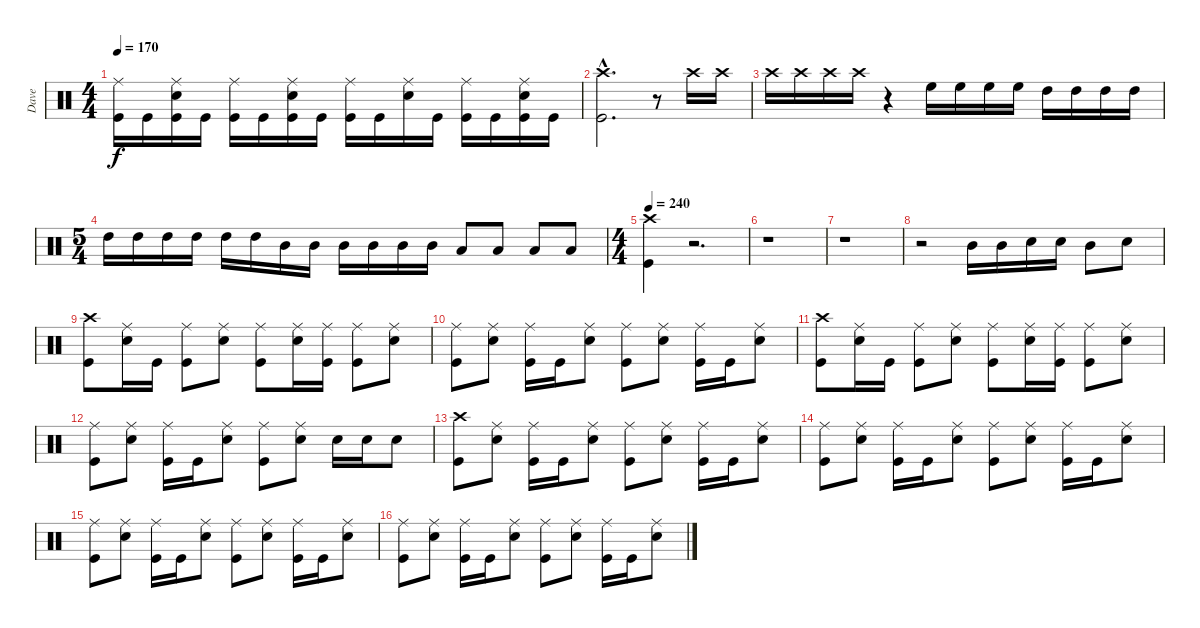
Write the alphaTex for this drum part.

\track ("Dave" "Dave") {instrument percussion}
\staff {score}
\articulation defaults
\ts (4 4)
\tempo 170
\clef neutral
\ks c
("Ride (middle)" "Kick (hit)").16{dy f} "Kick (hit)".16 ("Ride (middle)" "Snare (hit) 2" "Kick (hit)").16 "Kick (hit)".16 ("Ride (middle)" "Kick (hit)").16 "Kick (hit)".16 ("Ride (middle)" "Snare (hit) 2" "Kick (hit)").16 "Kick (hit)".16 ("Ride (middle)" "Kick (hit)").16 "Kick (hit)".16 ("Ride (middle)" "Snare (hit) 2").16 "Kick (hit)".16 ("Ride (middle)" "Kick (hit)").16 "Kick (hit)".16 ("Ride (middle)" "Snare (hit) 2" "Kick (hit)").16 "Kick (hit)".16 |
("Crash high (hit)"{hac} "Kick (hit)"{hac}).2{d} r.8 "Crash high (hit)".16 "Crash high (hit)".16 |
"Crash high (hit)".16 "Crash high (hit)".16 "Crash high (hit)".16 "Crash high (hit)".16 r.4 "High Floor Tom (hit)".16 "High Floor Tom (hit)".16 "High Floor Tom (hit)".16 "High Floor Tom (hit)".16 "High Tom (hit)".16 "High Tom (hit)".16 "High Tom (hit)".16 "High Tom (hit)".16 |
\ts (5 4)
"High Tom (hit)".16 "High Tom (hit)".16 "High Tom (hit)".16 "High Tom (hit)".16 "High Tom (hit)".16 "High Tom (hit)".16 "Mid Tom (hit)".16 "Mid Tom (hit)".16 "Mid Tom (hit)".16 "Mid Tom (hit)".16 "Mid Tom (hit)".16 "Mid Tom (hit)".16 "Low Tom (hit)".8 "Low Tom (hit)".8 "Low Tom (hit)".8 "Low Tom (hit)".8 |
\ts (4 4)
\tempo 240
("Crash high (hit)" "Kick (hit)").4 r.2{d} |
r.1 |
r.1 |
r.2 "Mid Tom (hit)".16 "Mid Tom (hit)".16 "Snare (hit) 2".16 "Snare (hit) 2".16 "Mid Tom (hit)".8 "Snare (hit) 2".8 |
("Crash high (hit)" "Kick (hit)").8 ("Ride (middle)" "Snare (hit) 2").16 "Kick (hit)".16 ("Ride (middle)" "Kick (hit)").8 ("Ride (middle)" "Snare (hit) 2").8 ("Ride (middle)" "Kick (hit)").8 ("Ride (middle)" "Snare (hit) 2").16 ("Ride (middle)" "Kick (hit)").16 ("Ride (middle)" "Kick (hit)").8 ("Ride (middle)" "Snare (hit) 2").8 |
("Ride (middle)" "Kick (hit)").8 ("Ride (middle)" "Snare (hit) 2").8 ("Ride (middle)" "Kick (hit)").16 "Kick (hit)".16 ("Ride (middle)" "Snare (hit) 2").8 ("Ride (middle)" "Kick (hit)").8 ("Ride (middle)" "Snare (hit) 2").8 ("Ride (middle)" "Kick (hit)").16 "Kick (hit)".16 ("Ride (middle)" "Snare (hit) 2").8 |
("Crash high (hit)" "Kick (hit)").8 ("Ride (middle)" "Snare (hit) 2").16 "Kick (hit)".16 ("Ride (middle)" "Kick (hit)").8 ("Ride (middle)" "Snare (hit) 2").8 ("Ride (middle)" "Kick (hit)").8 ("Ride (middle)" "Snare (hit) 2").16 ("Ride (middle)" "Kick (hit)").16 ("Ride (middle)" "Kick (hit)").8 ("Ride (middle)" "Snare (hit) 2").8 |
("Ride (middle)" "Kick (hit)").8 ("Ride (middle)" "Snare (hit) 2").8 ("Ride (middle)" "Kick (hit)").16 "Kick (hit)".16 ("Ride (middle)" "Snare (hit) 2").8 ("Ride (middle)" "Kick (hit)").8 ("Ride (middle)" "Snare (hit) 2").8 "Snare (hit) 2".16 "Snare (hit) 2".16 "Snare (hit) 2".8 |
("Crash high (hit)" "Kick (hit)").8 ("Ride (middle)" "Snare (hit) 2").8 ("Ride (middle)" "Kick (hit)").16 "Kick (hit)".16 ("Ride (middle)" "Snare (hit) 2").8 ("Ride (middle)" "Kick (hit)").8 ("Ride (middle)" "Snare (hit) 2").8 ("Ride (middle)" "Kick (hit)").16 "Kick (hit)".16 ("Ride (middle)" "Snare (hit) 2").8 |
("Ride (middle)" "Kick (hit)").8 ("Ride (middle)" "Snare (hit) 2").8 ("Ride (middle)" "Kick (hit)").16 "Kick (hit)".16 ("Ride (middle)" "Snare (hit) 2").8 ("Ride (middle)" "Kick (hit)").8 ("Ride (middle)" "Snare (hit) 2").8 ("Ride (middle)" "Kick (hit)").16 "Kick (hit)".16 ("Ride (middle)" "Snare (hit) 2").8 |
("Ride (middle)" "Kick (hit)").8 ("Ride (middle)" "Snare (hit) 2").8 ("Ride (middle)" "Kick (hit)").16 "Kick (hit)".16 ("Ride (middle)" "Snare (hit) 2").8 ("Ride (middle)" "Kick (hit)").8 ("Ride (middle)" "Snare (hit) 2").8 ("Ride (middle)" "Kick (hit)").16 "Kick (hit)".16 ("Ride (middle)" "Snare (hit) 2").8 |
("Ride (middle)" "Kick (hit)").8 ("Ride (middle)" "Snare (hit) 2").8 ("Ride (middle)" "Kick (hit)").16 "Kick (hit)".16 ("Ride (middle)" "Snare (hit) 2").8 ("Ride (middle)" "Kick (hit)").8 ("Ride (middle)" "Snare (hit) 2").8 ("Ride (middle)" "Kick (hit)").16 "Kick (hit)".16 ("Ride (middle)" "Snare (hit) 2").8
